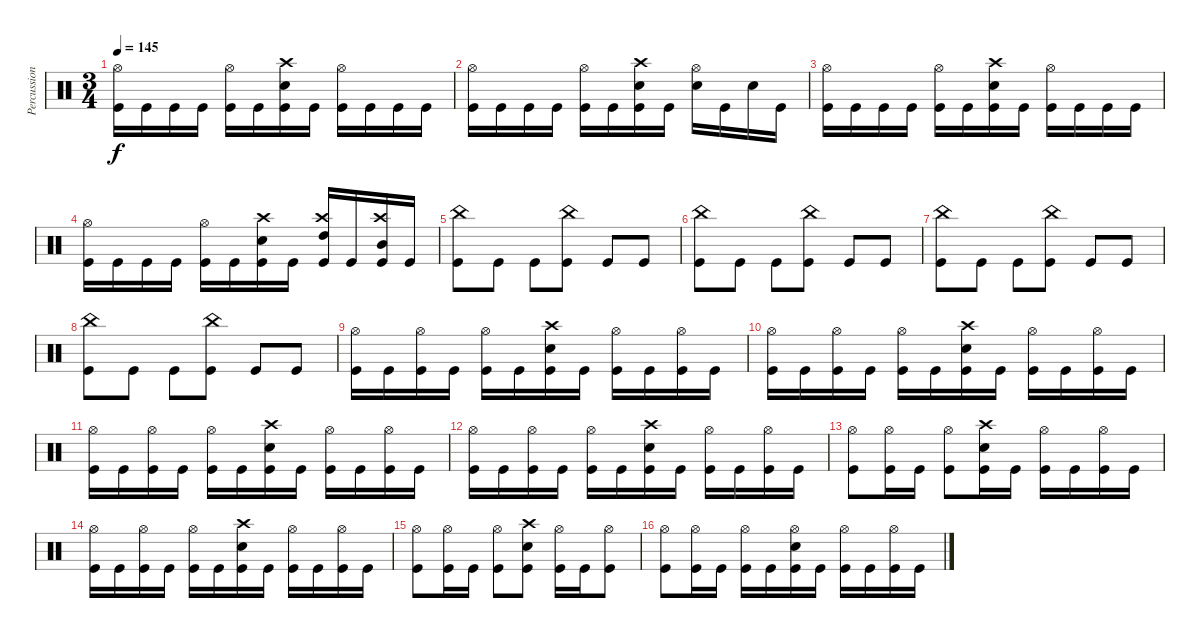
\track ("Percussion" "Percussion") {instrument percussion}
\staff {score}
\articulation defaults
\ts (3 4)
\tempo 145
\clef neutral
\ks c
("Hi-Hat (open)" "Kick (hit)").16{dy f} "Kick (hit)".16 "Kick (hit)".16 "Kick (hit)".16 ("Hi-Hat (open)" "Kick (hit)").16 "Kick (hit)".16 ("Crash high (hit)" "Snare (hit) 2" "Kick (hit)").16 "Kick (hit)".16 ("Hi-Hat (open)" "Kick (hit)").16 "Kick (hit)".16 "Kick (hit)".16 "Kick (hit)".16 |
("Hi-Hat (open)" "Kick (hit)").16 "Kick (hit)".16 "Kick (hit)".16 "Kick (hit)".16 ("Hi-Hat (open)" "Kick (hit)").16 "Kick (hit)".16 ("Crash high (hit)" "Snare (hit) 2" "Kick (hit)").16 "Kick (hit)".16 ("Hi-Hat (open)" "Electric Snare (hit)").16 "Kick (hit)".16 "Electric Snare (hit)".16 "Kick (hit)".16 |
("Hi-Hat (open)" "Kick (hit)").16 "Kick (hit)".16 "Kick (hit)".16 "Kick (hit)".16 ("Hi-Hat (open)" "Kick (hit)").16 "Kick (hit)".16 ("Crash high (hit)" "Snare (hit) 2" "Kick (hit)").16 "Kick (hit)".16 ("Hi-Hat (open)" "Kick (hit)").16 "Kick (hit)".16 "Kick (hit)".16 "Kick (hit)".16 |
("Hi-Hat (open)" "Kick (hit)").16 "Kick (hit)".16 "Kick (hit)".16 "Kick (hit)".16 ("Hi-Hat (open)" "Kick (hit)").16 "Kick (hit)".16 ("Crash high (hit)" "Snare (hit) 2" "Kick (hit)").16 "Kick (hit)".16 ("Crash high (hit)" "High Tom (hit)" "Kick (hit)").16 "Kick (hit)".16 ("Crash high (hit)" "Mid Tom (hit)" "Kick (hit)").16 "Kick (hit)".16 |
("China (hit)" "Kick (hit)").8 "Kick (hit)".8 "Kick (hit)".8 ("China (hit)" "Kick (hit)").8 "Kick (hit)".8 "Kick (hit)".8 |
("China (hit)" "Kick (hit)").8 "Kick (hit)".8 "Kick (hit)".8 ("China (hit)" "Kick (hit)").8 "Kick (hit)".8 "Kick (hit)".8 |
("China (hit)" "Kick (hit)").8 "Kick (hit)".8 "Kick (hit)".8 ("China (hit)" "Kick (hit)").8 "Kick (hit)".8 "Kick (hit)".8 |
("China (hit)" "Kick (hit)").8 "Kick (hit)".8 "Kick (hit)".8 ("China (hit)" "Kick (hit)").8 "Kick (hit)".8 "Kick (hit)".8 |
("Hi-Hat (open)" "Kick (hit)").16 "Kick (hit)".16 ("Hi-Hat (open)" "Kick (hit)").16 "Kick (hit)".16 ("Hi-Hat (open)" "Kick (hit)").16 "Kick (hit)".16 ("Crash high (hit)" "Snare (hit) 2" "Kick (hit)").16 "Kick (hit)".16 ("Hi-Hat (open)" "Kick (hit)").16 "Kick (hit)".16 ("Hi-Hat (open)" "Kick (hit)").16 "Kick (hit)".16 |
("Hi-Hat (open)" "Kick (hit)").16 "Kick (hit)".16 ("Hi-Hat (open)" "Kick (hit)").16 "Kick (hit)".16 ("Hi-Hat (open)" "Kick (hit)").16 "Kick (hit)".16 ("Crash high (hit)" "Snare (hit) 2" "Kick (hit)").16 "Kick (hit)".16 ("Hi-Hat (open)" "Kick (hit)").16 "Kick (hit)".16 ("Hi-Hat (open)" "Kick (hit)").16 "Kick (hit)".16 |
("Hi-Hat (open)" "Kick (hit)").16 "Kick (hit)".16 ("Hi-Hat (open)" "Kick (hit)").16 "Kick (hit)".16 ("Hi-Hat (open)" "Kick (hit)").16 "Kick (hit)".16 ("Crash high (hit)" "Snare (hit) 2" "Kick (hit)").16 "Kick (hit)".16 ("Hi-Hat (open)" "Kick (hit)").16 "Kick (hit)".16 ("Hi-Hat (open)" "Kick (hit)").16 "Kick (hit)".16 |
("Hi-Hat (open)" "Kick (hit)").16 "Kick (hit)".16 ("Hi-Hat (open)" "Kick (hit)").16 "Kick (hit)".16 ("Hi-Hat (open)" "Kick (hit)").16 "Kick (hit)".16 ("Crash high (hit)" "Snare (hit) 2" "Kick (hit)").16 "Kick (hit)".16 ("Hi-Hat (open)" "Kick (hit)").16 "Kick (hit)".16 ("Hi-Hat (open)" "Kick (hit)").16 "Kick (hit)".16 |
("Hi-Hat (open)" "Kick (hit)").8 ("Hi-Hat (open)" "Kick (hit)").16 "Kick (hit)".16 ("Hi-Hat (open)" "Kick (hit)").8 ("Crash high (hit)" "Snare (hit) 2" "Kick (hit)").16 "Kick (hit)".16 ("Hi-Hat (open)" "Kick (hit)").16 "Kick (hit)".16 ("Hi-Hat (open)" "Kick (hit)").16 "Kick (hit)".16 |
("Hi-Hat (open)" "Kick (hit)").16 "Kick (hit)".16 ("Hi-Hat (open)" "Kick (hit)").16 "Kick (hit)".16 ("Hi-Hat (open)" "Kick (hit)").16 "Kick (hit)".16 ("Crash high (hit)" "Snare (hit) 2" "Kick (hit)").16 "Kick (hit)".16 ("Hi-Hat (open)" "Kick (hit)").16 "Kick (hit)".16 ("Hi-Hat (open)" "Kick (hit)").16 "Kick (hit)".16 |
("Hi-Hat (open)" "Kick (hit)").8 ("Hi-Hat (open)" "Kick (hit)").16 "Kick (hit)".16 ("Hi-Hat (open)" "Kick (hit)").8 ("Crash high (hit)" "Snare (hit) 2" "Kick (hit)").8 ("Hi-Hat (open)" "Kick (hit)").16 "Kick (hit)".16 ("Hi-Hat (open)" "Kick (hit)").8 |
("Hi-Hat (open)" "Kick (hit)").8 ("Hi-Hat (open)" "Kick (hit)").16 "Kick (hit)".16 ("Hi-Hat (open)" "Kick (hit)").16 "Kick (hit)".16 ("Hi-Hat (open)" "Snare (hit) 2" "Kick (hit)").16 "Kick (hit)".16 ("Hi-Hat (open)" "Kick (hit)").16 "Kick (hit)".16 ("Hi-Hat (open)" "Kick (hit)").16 "Kick (hit)".16
